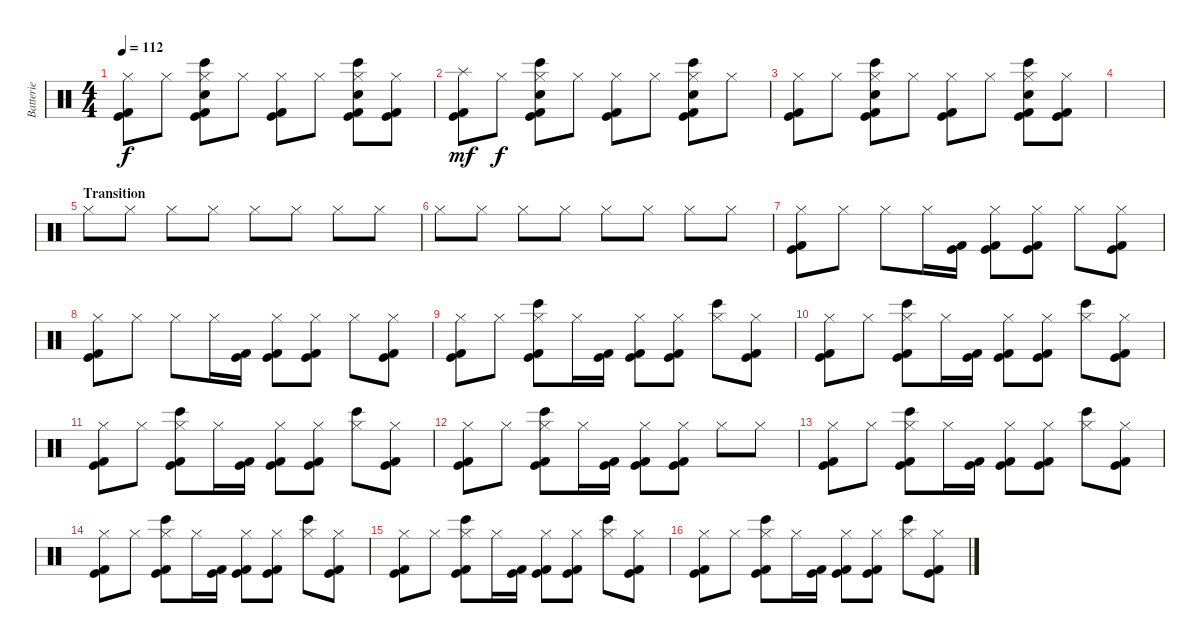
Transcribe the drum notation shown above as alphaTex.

\track ("Batterie" "Batterie") {instrument percussion}
\staff {score}
\articulation defaults
\ts (4 4)
\tempo 112
\clef neutral
\ks c
("Hi-Hat (closed)" "Kick (hit)" "Kick (hit) 2").8{dy f} "Hi-Hat (closed)".8 ("Hi-Hat (closed)" "Electric Snare (hit)" "Bongo High (hit)" "Kick (hit)" "Kick (hit) 2").8 "Hi-Hat (closed)".8 ("Hi-Hat (closed)" "Kick (hit)" "Kick (hit) 2").8 "Hi-Hat (closed)".8 ("Hi-Hat (closed)" "Electric Snare (hit)" "Bongo High (hit)" "Kick (hit)" "Kick (hit) 2").8 ("Hi-Hat (closed)" "Kick (hit)" "Kick (hit) 2").8 |
("Splash (hit)" "Kick (hit)" "Kick (hit) 2").8{dy mf} "Hi-Hat (closed)".8{dy f} ("Hi-Hat (closed)" "Electric Snare (hit)" "Bongo High (hit)" "Kick (hit)" "Kick (hit) 2").8 "Hi-Hat (closed)".8 ("Hi-Hat (closed)" "Kick (hit)" "Kick (hit) 2").8 "Hi-Hat (closed)".8 ("Hi-Hat (closed)" "Electric Snare (hit)" "Bongo High (hit)" "Kick (hit)" "Kick (hit) 2").8 "Hi-Hat (closed)".8 |
("Hi-Hat (closed)" "Kick (hit)" "Kick (hit) 2").8 "Hi-Hat (closed)".8 ("Hi-Hat (closed)" "Electric Snare (hit)" "Bongo High (hit)" "Kick (hit)" "Kick (hit) 2").8 "Hi-Hat (closed)".8 ("Hi-Hat (closed)" "Kick (hit)" "Kick (hit) 2").8 "Hi-Hat (closed)".8 ("Hi-Hat (closed)" "Electric Snare (hit)" "Bongo High (hit)" "Kick (hit)" "Kick (hit) 2").8 ("Hi-Hat (closed)" "Kick (hit)" "Kick (hit) 2").8 |
|
\section ("" "Transition")
"Hi-Hat (closed)".8 "Hi-Hat (closed)".8 "Hi-Hat (closed)".8 "Hi-Hat (closed)".8 "Hi-Hat (closed)".8 "Hi-Hat (closed)".8 "Hi-Hat (closed)".8 "Hi-Hat (closed)".8 |
"Hi-Hat (closed)".8 "Hi-Hat (closed)".8 "Hi-Hat (closed)".8 "Hi-Hat (closed)".8 "Hi-Hat (closed)".8 "Hi-Hat (closed)".8 "Hi-Hat (closed)".8 "Hi-Hat (closed)".8 |
("Hi-Hat (closed)" "Kick (hit)" "Kick (hit) 2").8 "Hi-Hat (closed)".8 "Hi-Hat (closed)".8 "Hi-Hat (closed)".16 ("Kick (hit)" "Kick (hit) 2").16 ("Hi-Hat (closed)" "Kick (hit)" "Kick (hit) 2").8 ("Hi-Hat (closed)" "Kick (hit)" "Kick (hit) 2").8 "Hi-Hat (closed)".8 ("Hi-Hat (closed)" "Kick (hit)" "Kick (hit) 2").8 |
("Hi-Hat (closed)" "Kick (hit)" "Kick (hit) 2").8 "Hi-Hat (closed)".8 "Hi-Hat (closed)".8 "Hi-Hat (closed)".16 ("Kick (hit)" "Kick (hit) 2").16 ("Hi-Hat (closed)" "Kick (hit)" "Kick (hit) 2").8 ("Hi-Hat (closed)" "Kick (hit)" "Kick (hit) 2").8 "Hi-Hat (closed)".8 ("Hi-Hat (closed)" "Kick (hit)" "Kick (hit) 2").8 |
("Hi-Hat (closed)" "Kick (hit)" "Kick (hit) 2").8 "Hi-Hat (closed)".8 ("Hi-Hat (closed)" "Bongo High (hit)" "Kick (hit)" "Kick (hit) 2").8 "Hi-Hat (closed)".16 ("Kick (hit)" "Kick (hit) 2").16 ("Hi-Hat (closed)" "Kick (hit)" "Kick (hit) 2").8 ("Hi-Hat (closed)" "Kick (hit)" "Kick (hit) 2").8 ("Hi-Hat (closed)" "Bongo High (hit)").8 ("Hi-Hat (closed)" "Kick (hit)" "Kick (hit) 2").8 |
("Hi-Hat (closed)" "Kick (hit)" "Kick (hit) 2").8 "Hi-Hat (closed)".8 ("Hi-Hat (closed)" "Bongo High (hit)" "Kick (hit)" "Kick (hit) 2").8 "Hi-Hat (closed)".16 ("Kick (hit)" "Kick (hit) 2").16 ("Hi-Hat (closed)" "Kick (hit)" "Kick (hit) 2").8 ("Hi-Hat (closed)" "Kick (hit)" "Kick (hit) 2").8 ("Hi-Hat (closed)" "Bongo High (hit)").8 ("Hi-Hat (closed)" "Kick (hit)" "Kick (hit) 2").8 |
("Hi-Hat (closed)" "Kick (hit)" "Kick (hit) 2").8 "Hi-Hat (closed)".8 ("Hi-Hat (closed)" "Bongo High (hit)" "Kick (hit)" "Kick (hit) 2").8 "Hi-Hat (closed)".16 ("Kick (hit)" "Kick (hit) 2").16 ("Hi-Hat (closed)" "Kick (hit)" "Kick (hit) 2").8 ("Hi-Hat (closed)" "Kick (hit)" "Kick (hit) 2").8 ("Hi-Hat (closed)" "Bongo High (hit)").8 ("Hi-Hat (closed)" "Kick (hit)" "Kick (hit) 2").8 |
("Hi-Hat (closed)" "Kick (hit)" "Kick (hit) 2").8 "Hi-Hat (closed)".8 ("Hi-Hat (closed)" "Bongo High (hit)" "Kick (hit)" "Kick (hit) 2").8 "Hi-Hat (closed)".16 ("Kick (hit)" "Kick (hit) 2").16 ("Hi-Hat (closed)" "Kick (hit)" "Kick (hit) 2").8 ("Hi-Hat (closed)" "Kick (hit)" "Kick (hit) 2").8 "Hi-Hat (closed)".8 "Hi-Hat (closed)".8 |
("Hi-Hat (closed)" "Kick (hit)" "Kick (hit) 2").8 "Hi-Hat (closed)".8 ("Hi-Hat (closed)" "Bongo High (hit)" "Kick (hit)" "Kick (hit) 2").8 "Hi-Hat (closed)".16 ("Kick (hit)" "Kick (hit) 2").16 ("Hi-Hat (closed)" "Kick (hit)" "Kick (hit) 2").8 ("Hi-Hat (closed)" "Kick (hit)" "Kick (hit) 2").8 ("Hi-Hat (closed)" "Bongo High (hit)").8 ("Hi-Hat (closed)" "Kick (hit)" "Kick (hit) 2").8 |
("Hi-Hat (closed)" "Kick (hit)" "Kick (hit) 2").8 "Hi-Hat (closed)".8 ("Hi-Hat (closed)" "Bongo High (hit)" "Kick (hit)" "Kick (hit) 2").8 "Hi-Hat (closed)".16 ("Kick (hit)" "Kick (hit) 2").16 ("Hi-Hat (closed)" "Kick (hit)" "Kick (hit) 2").8 ("Hi-Hat (closed)" "Kick (hit)" "Kick (hit) 2").8 ("Hi-Hat (closed)" "Bongo High (hit)").8 ("Hi-Hat (closed)" "Kick (hit)" "Kick (hit) 2").8 |
("Hi-Hat (closed)" "Kick (hit)" "Kick (hit) 2").8 "Hi-Hat (closed)".8 ("Hi-Hat (closed)" "Bongo High (hit)" "Kick (hit)" "Kick (hit) 2").8 "Hi-Hat (closed)".16 ("Kick (hit)" "Kick (hit) 2").16 ("Hi-Hat (closed)" "Kick (hit)" "Kick (hit) 2").8 ("Hi-Hat (closed)" "Kick (hit)" "Kick (hit) 2").8 ("Hi-Hat (closed)" "Bongo High (hit)").8 ("Hi-Hat (closed)" "Kick (hit)" "Kick (hit) 2").8 |
("Hi-Hat (closed)" "Kick (hit)" "Kick (hit) 2").8 "Hi-Hat (closed)".8 ("Hi-Hat (closed)" "Bongo High (hit)" "Kick (hit)" "Kick (hit) 2").8 "Hi-Hat (closed)".16 ("Kick (hit)" "Kick (hit) 2").16 ("Hi-Hat (closed)" "Kick (hit)" "Kick (hit) 2").8 ("Hi-Hat (closed)" "Kick (hit)" "Kick (hit) 2").8 ("Hi-Hat (closed)" "Bongo High (hit)").8 ("Hi-Hat (closed)" "Kick (hit)" "Kick (hit) 2").8
